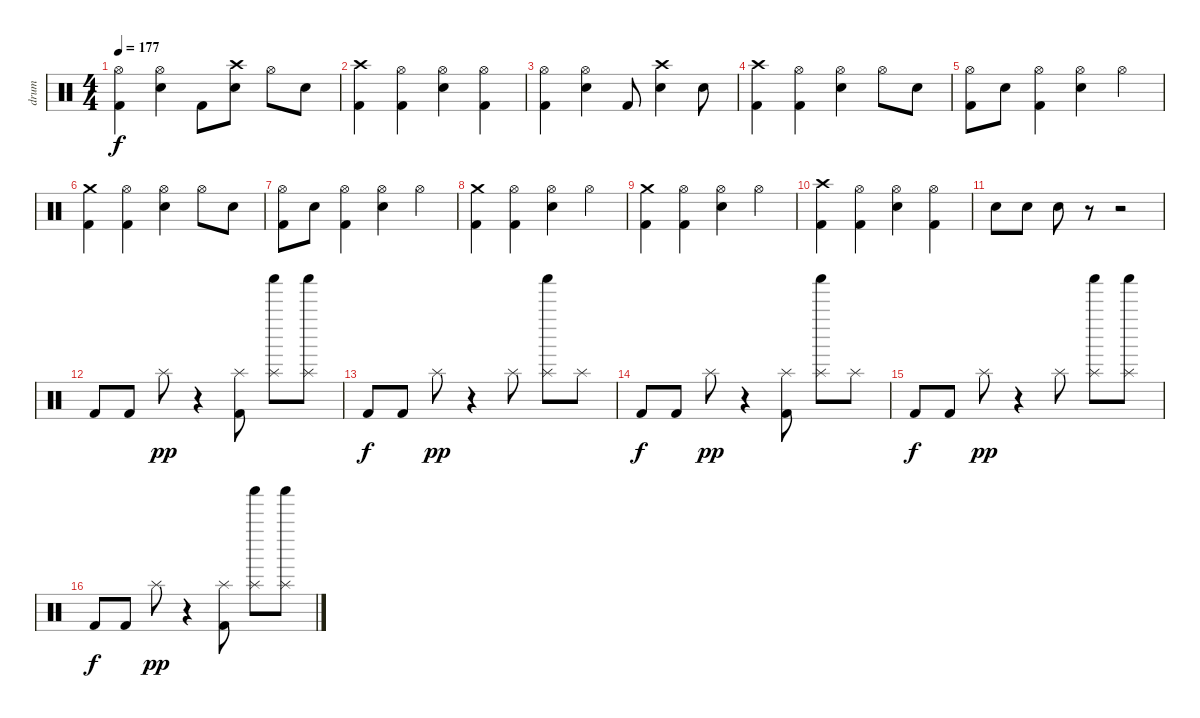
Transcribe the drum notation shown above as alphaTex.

\track ("drum" "drum") {instrument percussion}
\staff {score}
\articulation defaults
\ts (4 4)
\tempo 177
\clef neutral
\ks c
("Hi-Hat (open)" "Kick (hit) 2").4{dy f} ("Hi-Hat (open)" "Electric Snare (hit)").4 "Kick (hit) 2".8 ("Crash high (hit)" "Electric Snare (hit)").8 "Hi-Hat (open)".8 "Electric Snare (hit)".8 |
("Crash high (hit)" "Kick (hit) 2").4 ("Hi-Hat (open)" "Kick (hit) 2").4 ("Hi-Hat (open)" "Electric Snare (hit)").4 ("Hi-Hat (open)" "Kick (hit) 2").4 |
("Hi-Hat (open)" "Kick (hit) 2").4 ("Hi-Hat (open)" "Electric Snare (hit)").4 "Kick (hit) 2".8 ("Crash high (hit)" "Electric Snare (hit)").4 "Electric Snare (hit)".8 |
\section ("" "")
("Crash high (hit)" "Kick (hit) 2").4 ("Hi-Hat (open)" "Kick (hit) 2").4 ("Hi-Hat (open)" "Electric Snare (hit)").4 "Hi-Hat (open)".8 "Electric Snare (hit)".8 |
("Hi-Hat (open)" "Kick (hit) 2").8 "Electric Snare (hit)".8 ("Hi-Hat (open)" "Kick (hit) 2").4 ("Hi-Hat (open)" "Electric Snare (hit)").4 "Hi-Hat (open)".4 |
("Crash medium (hit)" "Kick (hit) 2").4 ("Hi-Hat (open)" "Kick (hit) 2").4 ("Hi-Hat (open)" "Electric Snare (hit)").4 "Hi-Hat (open)".8 "Electric Snare (hit)".8 |
("Hi-Hat (open)" "Kick (hit) 2").8 "Electric Snare (hit)".8 ("Hi-Hat (open)" "Kick (hit) 2").4 ("Hi-Hat (open)" "Electric Snare (hit)").4 "Hi-Hat (open)".4 |
("Crash medium (hit)" "Kick (hit) 2").4 ("Hi-Hat (open)" "Kick (hit) 2").4 ("Hi-Hat (open)" "Electric Snare (hit)").4 "Hi-Hat (open)".4 |
("Crash medium (hit)" "Kick (hit) 2").4 ("Hi-Hat (open)" "Kick (hit) 2").4 ("Hi-Hat (open)" "Electric Snare (hit)").4 "Hi-Hat (open)".4 |
("Crash high (hit)" "Kick (hit) 2").4 ("Hi-Hat (open)" "Kick (hit) 2").4 ("Hi-Hat (open)" "Electric Snare (hit)").4 ("Hi-Hat (open)" "Kick (hit) 2").4 |
"Electric Snare (hit)".8 "Electric Snare (hit)".8 "Electric Snare (hit)".8 r.8 r.2 |
"Kick (hit) 2".8 "Kick (hit) 2".8 "Splash (hit)".8{dy pp} r.4 ("Splash (hit)" "Kick (hit) 2").8 ("Splash (hit)" "Shaker (hit)").8 ("Splash (hit)" "Shaker (hit)").8 |
"Kick (hit) 2".8{dy f} "Kick (hit) 2".8 "Splash (hit)".8{dy pp} r.4 "Splash (hit)".8 ("Splash (hit)" "Shaker (hit)").8 "Splash (hit)".8 |
"Kick (hit) 2".8{dy f} "Kick (hit) 2".8 "Splash (hit)".8{dy pp} r.4 ("Splash (hit)" "Kick (hit) 2").8 ("Splash (hit)" "Shaker (hit)").8 "Splash (hit)".8 |
"Kick (hit) 2".8{dy f} "Kick (hit) 2".8 "Splash (hit)".8{dy pp} r.4 "Splash (hit)".8 ("Splash (hit)" "Shaker (hit)").8 ("Splash (hit)" "Shaker (hit)").8 |
"Kick (hit) 2".8{dy f} "Kick (hit) 2".8 "Splash (hit)".8{dy pp} r.4 ("Splash (hit)" "Kick (hit) 2").8 ("Splash (hit)" "Shaker (hit)").8 ("Splash (hit)" "Shaker (hit)").8
